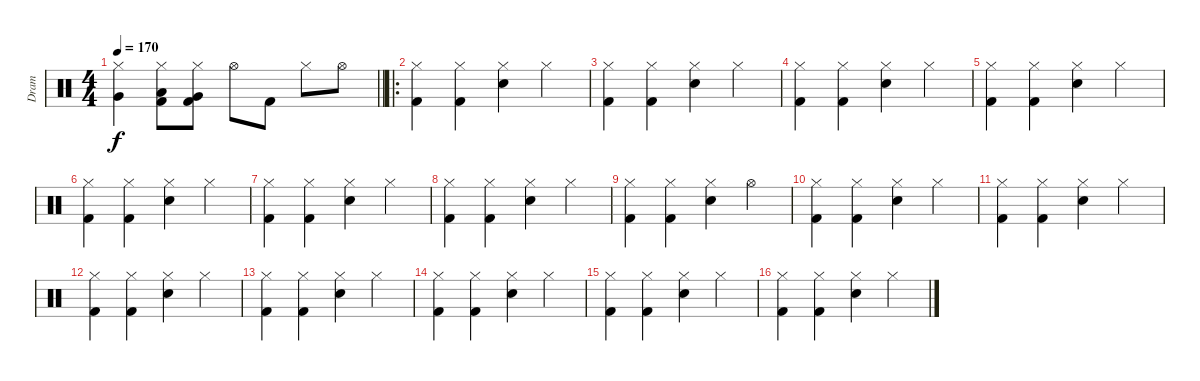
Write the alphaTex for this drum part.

\track ("Dram" "Dram") {instrument percussion}
\staff {score}
\articulation defaults
\ts (4 4)
\tempo 170
\clef neutral
\barLineRight lightlight
\ks c
("Hi-Hat (closed)" "Very Low Tom (hit)").4{dy f} ("Hi-Hat (closed)" "Low Tom (hit)" "Kick (hit) 2").8 ("Hi-Hat (closed)" "Very Low Tom (hit)" "Kick (hit) 2").8 "Hi-Hat (open)".8 "Kick (hit) 2".8 "Hi-Hat (closed)".8 "Hi-Hat (open)".8 |
\ro
("Hi-Hat (closed)" "Kick (hit) 2").4 ("Hi-Hat (closed)" "Kick (hit) 2").4 ("Hi-Hat (closed)" "Electric Snare (hit)").4 "Hi-Hat (closed)".4 |
("Hi-Hat (closed)" "Kick (hit) 2").4 ("Hi-Hat (closed)" "Kick (hit) 2").4 ("Hi-Hat (closed)" "Electric Snare (hit)").4 "Hi-Hat (closed)".4 |
("Hi-Hat (closed)" "Kick (hit) 2").4 ("Hi-Hat (closed)" "Kick (hit) 2").4 ("Hi-Hat (closed)" "Electric Snare (hit)").4 "Hi-Hat (closed)".4 |
("Hi-Hat (closed)" "Kick (hit) 2").4 ("Hi-Hat (closed)" "Kick (hit) 2").4 ("Hi-Hat (closed)" "Electric Snare (hit)").4 "Hi-Hat (closed)".4 |
("Hi-Hat (closed)" "Kick (hit) 2").4 ("Hi-Hat (closed)" "Kick (hit) 2").4 ("Hi-Hat (closed)" "Electric Snare (hit)").4 "Hi-Hat (closed)".4 |
("Hi-Hat (closed)" "Kick (hit) 2").4 ("Hi-Hat (closed)" "Kick (hit) 2").4 ("Hi-Hat (closed)" "Electric Snare (hit)").4 "Hi-Hat (closed)".4 |
("Hi-Hat (closed)" "Kick (hit) 2").4 ("Hi-Hat (closed)" "Kick (hit) 2").4 ("Hi-Hat (closed)" "Electric Snare (hit)").4 "Hi-Hat (closed)".4 |
("Hi-Hat (closed)" "Kick (hit) 2").4 ("Hi-Hat (closed)" "Kick (hit) 2").4 ("Hi-Hat (closed)" "Electric Snare (hit)").4 "Hi-Hat (open)".4 |
("Hi-Hat (closed)" "Kick (hit) 2").4 ("Hi-Hat (closed)" "Kick (hit) 2").4 ("Hi-Hat (closed)" "Electric Snare (hit)").4 "Hi-Hat (closed)".4 |
("Hi-Hat (closed)" "Kick (hit) 2").4 ("Hi-Hat (closed)" "Kick (hit) 2").4 ("Hi-Hat (closed)" "Electric Snare (hit)").4 "Hi-Hat (closed)".4 |
("Hi-Hat (closed)" "Kick (hit) 2").4 ("Hi-Hat (closed)" "Kick (hit) 2").4 ("Hi-Hat (closed)" "Electric Snare (hit)").4 "Hi-Hat (closed)".4 |
("Hi-Hat (closed)" "Kick (hit) 2").4 ("Hi-Hat (closed)" "Kick (hit) 2").4 ("Hi-Hat (closed)" "Electric Snare (hit)").4 "Hi-Hat (closed)".4 |
("Hi-Hat (closed)" "Kick (hit) 2").4 ("Hi-Hat (closed)" "Kick (hit) 2").4 ("Hi-Hat (closed)" "Electric Snare (hit)").4 "Hi-Hat (closed)".4 |
("Hi-Hat (closed)" "Kick (hit) 2").4 ("Hi-Hat (closed)" "Kick (hit) 2").4 ("Hi-Hat (closed)" "Electric Snare (hit)").4 "Hi-Hat (closed)".4 |
("Hi-Hat (closed)" "Kick (hit) 2").4 ("Hi-Hat (closed)" "Kick (hit) 2").4 ("Hi-Hat (closed)" "Electric Snare (hit)").4 "Hi-Hat (closed)".4
